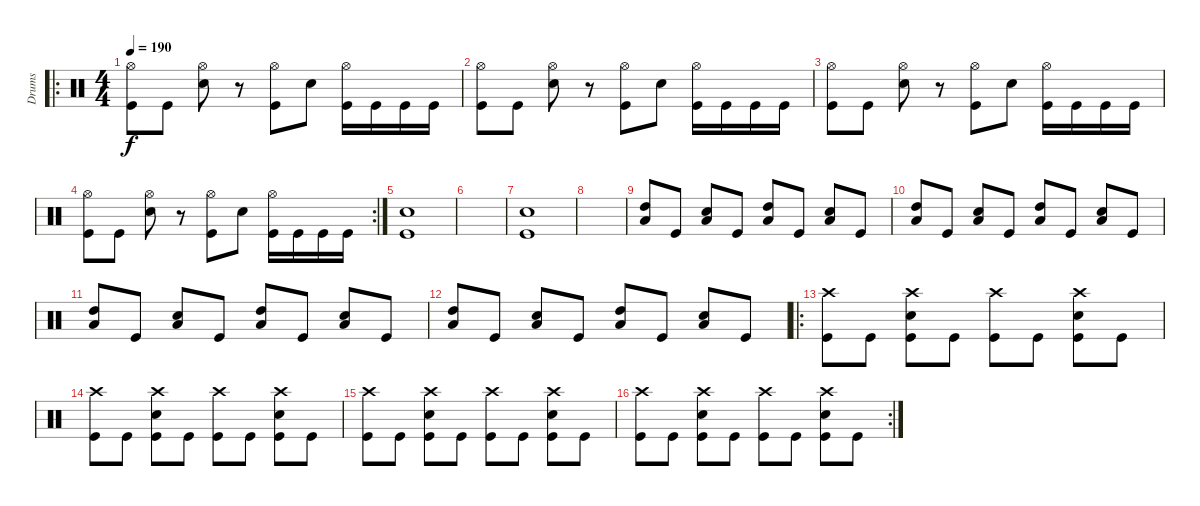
\track ("Drums" "Drums") {instrument percussion}
\staff {score}
\articulation defaults
\ro
\ts (4 4)
\tempo 190
\clef neutral
\ks c
("Hi-Hat (open)" "Kick (hit)").8{dy f} "Kick (hit)".8 ("Hi-Hat (open)" "Snare (hit) 2").8 r.8 ("Hi-Hat (open)" "Kick (hit)").8 "Snare (hit) 2".8 ("Hi-Hat (open)" "Kick (hit)").16 "Kick (hit)".16 "Kick (hit)".16 "Kick (hit)".16 |
("Hi-Hat (open)" "Kick (hit)").8 "Kick (hit)".8 ("Hi-Hat (open)" "Snare (hit) 2").8 r.8 ("Hi-Hat (open)" "Kick (hit)").8 "Snare (hit) 2".8 ("Hi-Hat (open)" "Kick (hit)").16 "Kick (hit)".16 "Kick (hit)".16 "Kick (hit)".16 |
("Hi-Hat (open)" "Kick (hit)").8 "Kick (hit)".8 ("Hi-Hat (open)" "Snare (hit) 2").8 r.8 ("Hi-Hat (open)" "Kick (hit)").8 "Snare (hit) 2".8 ("Hi-Hat (open)" "Kick (hit)").16 "Kick (hit)".16 "Kick (hit)".16 "Kick (hit)".16 |
\rc 2
("Hi-Hat (open)" "Kick (hit)").8 "Kick (hit)".8 ("Hi-Hat (open)" "Snare (hit) 2").8 r.8 ("Hi-Hat (open)" "Kick (hit)").8 "Snare (hit) 2".8 ("Hi-Hat (open)" "Kick (hit)").16 "Kick (hit)".16 "Kick (hit)".16 "Kick (hit)".16 |
("Snare (hit) 2" "Kick (hit)").1 |
|
("Snare (hit) 2" "Kick (hit)").1 |
|
("High Tom (hit)" "Low Floor Tom (hit)").8 "Kick (hit)".8 ("Snare (hit) 2" "Low Floor Tom (hit)").8 "Kick (hit)".8 ("High Tom (hit)" "Low Floor Tom (hit)").8 "Kick (hit)".8 ("Snare (hit) 2" "Low Floor Tom (hit)").8 "Kick (hit)".8 |
("High Tom (hit)" "Low Floor Tom (hit)").8 "Kick (hit)".8 ("Snare (hit) 2" "Low Floor Tom (hit)").8 "Kick (hit)".8 ("High Tom (hit)" "Low Floor Tom (hit)").8 "Kick (hit)".8 ("Snare (hit) 2" "Low Floor Tom (hit)").8 "Kick (hit)".8 |
("High Tom (hit)" "Low Floor Tom (hit)").8 "Kick (hit)".8 ("Snare (hit) 2" "Low Floor Tom (hit)").8 "Kick (hit)".8 ("High Tom (hit)" "Low Floor Tom (hit)").8 "Kick (hit)".8 ("Snare (hit) 2" "Low Floor Tom (hit)").8 "Kick (hit)".8 |
("High Tom (hit)" "Low Floor Tom (hit)").8 "Kick (hit)".8 ("Snare (hit) 2" "Low Floor Tom (hit)").8 "Kick (hit)".8 ("High Tom (hit)" "Low Floor Tom (hit)").8 "Kick (hit)".8 ("Snare (hit) 2" "Low Floor Tom (hit)").8 "Kick (hit)".8 |
\ro
("Crash high (hit)" "Kick (hit)").8 "Kick (hit)".8 ("Crash high (hit)" "Snare (hit) 2" "Kick (hit)").8 "Kick (hit)".8 ("Crash high (hit)" "Kick (hit)").8 "Kick (hit)".8 ("Crash high (hit)" "Snare (hit) 2" "Kick (hit)").8 "Kick (hit)".8 |
("Crash high (hit)" "Kick (hit)").8 "Kick (hit)".8 ("Crash high (hit)" "Snare (hit) 2" "Kick (hit)").8 "Kick (hit)".8 ("Crash high (hit)" "Kick (hit)").8 "Kick (hit)".8 ("Crash high (hit)" "Snare (hit) 2" "Kick (hit)").8 "Kick (hit)".8 |
("Crash high (hit)" "Kick (hit)").8 "Kick (hit)".8 ("Crash high (hit)" "Snare (hit) 2" "Kick (hit)").8 "Kick (hit)".8 ("Crash high (hit)" "Kick (hit)").8 "Kick (hit)".8 ("Crash high (hit)" "Snare (hit) 2" "Kick (hit)").8 "Kick (hit)".8 |
\rc 2
("Crash high (hit)" "Kick (hit)").8 "Kick (hit)".8 ("Crash high (hit)" "Snare (hit) 2" "Kick (hit)").8 "Kick (hit)".8 ("Crash high (hit)" "Kick (hit)").8 "Kick (hit)".8 ("Crash high (hit)" "Snare (hit) 2" "Kick (hit)").8 "Kick (hit)".8
